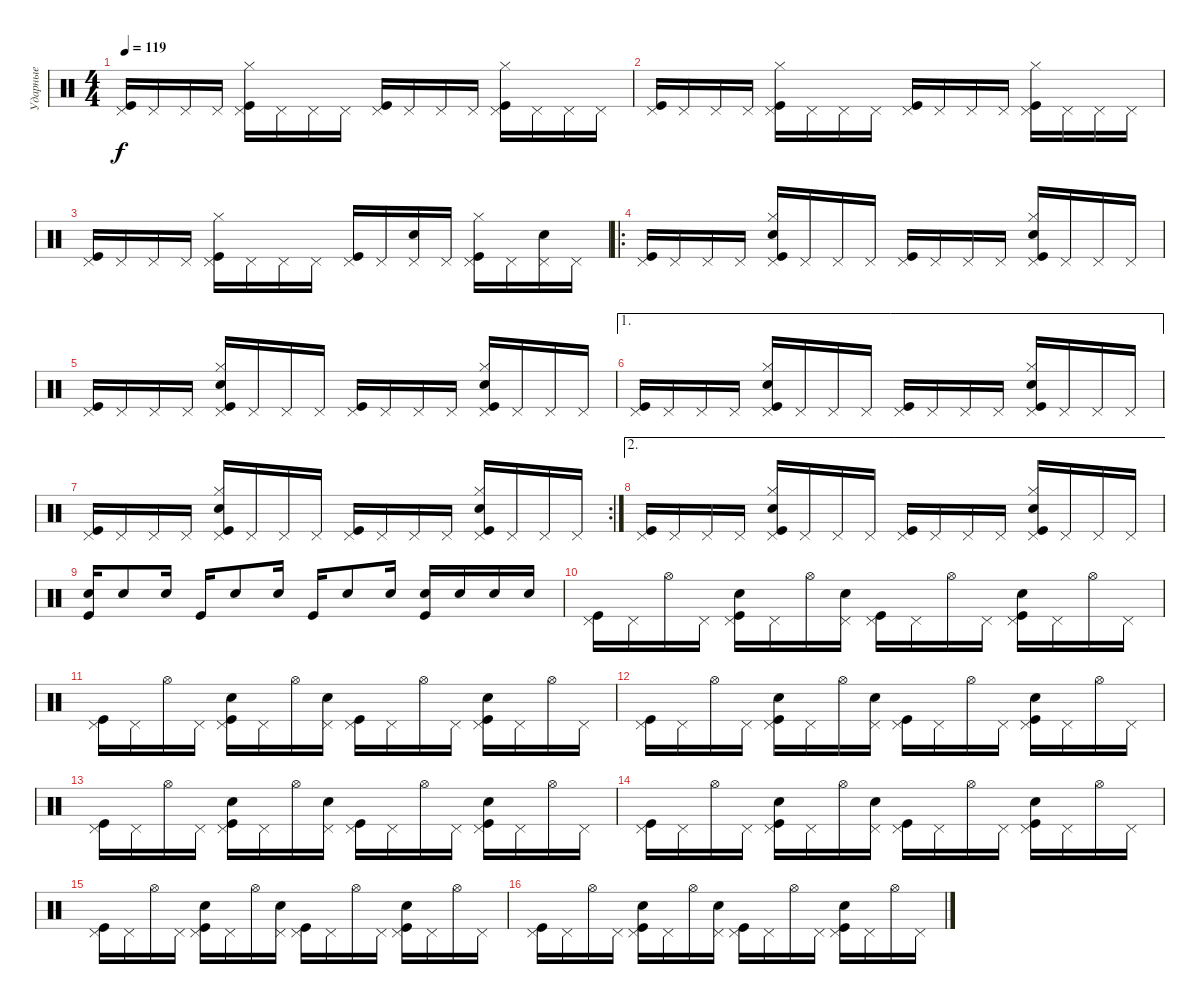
\track ("Ударные" "Ударные") {instrument percussion}
\staff {score}
\articulation defaults
\ts (4 4)
\tempo 119
\clef neutral
\ks c
("Kick (hit)" "Pedal Hi-Hat (hit)").16{dy f} "Pedal Hi-Hat (hit)".16 "Pedal Hi-Hat (hit)".16 "Pedal Hi-Hat (hit)".16 ("Kick (hit)" "Pedal Hi-Hat (hit)" "Hi-Hat (closed)").16 "Pedal Hi-Hat (hit)".16 "Pedal Hi-Hat (hit)".16 "Pedal Hi-Hat (hit)".16 ("Kick (hit)" "Pedal Hi-Hat (hit)").16 "Pedal Hi-Hat (hit)".16 "Pedal Hi-Hat (hit)".16 "Pedal Hi-Hat (hit)".16 ("Kick (hit)" "Pedal Hi-Hat (hit)" "Hi-Hat (closed)").16 "Pedal Hi-Hat (hit)".16 "Pedal Hi-Hat (hit)".16 "Pedal Hi-Hat (hit)".16 |
("Kick (hit)" "Pedal Hi-Hat (hit)").16 "Pedal Hi-Hat (hit)".16 "Pedal Hi-Hat (hit)".16 "Pedal Hi-Hat (hit)".16 ("Kick (hit)" "Pedal Hi-Hat (hit)" "Hi-Hat (closed)").16 "Pedal Hi-Hat (hit)".16 "Pedal Hi-Hat (hit)".16 "Pedal Hi-Hat (hit)".16 ("Kick (hit)" "Pedal Hi-Hat (hit)").16 "Pedal Hi-Hat (hit)".16 "Pedal Hi-Hat (hit)".16 "Pedal Hi-Hat (hit)".16 ("Kick (hit)" "Pedal Hi-Hat (hit)" "Hi-Hat (closed)").16 "Pedal Hi-Hat (hit)".16 "Pedal Hi-Hat (hit)".16 "Pedal Hi-Hat (hit)".16 |
("Kick (hit)" "Pedal Hi-Hat (hit)").16 "Pedal Hi-Hat (hit)".16 "Pedal Hi-Hat (hit)".16 "Pedal Hi-Hat (hit)".16 ("Kick (hit)" "Pedal Hi-Hat (hit)" "Hi-Hat (closed)").16 "Pedal Hi-Hat (hit)".16 "Pedal Hi-Hat (hit)".16 "Pedal Hi-Hat (hit)".16 ("Kick (hit)" "Pedal Hi-Hat (hit)").16 "Pedal Hi-Hat (hit)".16 ("Pedal Hi-Hat (hit)" "Electric Snare (hit)").16 "Pedal Hi-Hat (hit)".16 ("Kick (hit)" "Pedal Hi-Hat (hit)" "Hi-Hat (closed)").16 "Pedal Hi-Hat (hit)".16 ("Pedal Hi-Hat (hit)" "Electric Snare (hit)").16 "Pedal Hi-Hat (hit)".16 |
\ro
("Kick (hit)" "Pedal Hi-Hat (hit)").16 "Pedal Hi-Hat (hit)".16 "Pedal Hi-Hat (hit)".16 "Pedal Hi-Hat (hit)".16 ("Kick (hit)" "Pedal Hi-Hat (hit)" "Electric Snare (hit)" "Hi-Hat (closed)").16 "Pedal Hi-Hat (hit)".16 "Pedal Hi-Hat (hit)".16 "Pedal Hi-Hat (hit)".16 ("Kick (hit)" "Pedal Hi-Hat (hit)").16 "Pedal Hi-Hat (hit)".16 "Pedal Hi-Hat (hit)".16 "Pedal Hi-Hat (hit)".16 ("Kick (hit)" "Pedal Hi-Hat (hit)" "Electric Snare (hit)" "Hi-Hat (closed)").16 "Pedal Hi-Hat (hit)".16 "Pedal Hi-Hat (hit)".16 "Pedal Hi-Hat (hit)".16 |
("Kick (hit)" "Pedal Hi-Hat (hit)").16 "Pedal Hi-Hat (hit)".16 "Pedal Hi-Hat (hit)".16 "Pedal Hi-Hat (hit)".16 ("Kick (hit)" "Pedal Hi-Hat (hit)" "Electric Snare (hit)" "Hi-Hat (closed)").16 "Pedal Hi-Hat (hit)".16 "Pedal Hi-Hat (hit)".16 "Pedal Hi-Hat (hit)".16 ("Kick (hit)" "Pedal Hi-Hat (hit)").16 "Pedal Hi-Hat (hit)".16 "Pedal Hi-Hat (hit)".16 "Pedal Hi-Hat (hit)".16 ("Kick (hit)" "Pedal Hi-Hat (hit)" "Electric Snare (hit)" "Hi-Hat (closed)").16 "Pedal Hi-Hat (hit)".16 "Pedal Hi-Hat (hit)".16 "Pedal Hi-Hat (hit)".16 |
\ae 1
("Kick (hit)" "Pedal Hi-Hat (hit)").16 "Pedal Hi-Hat (hit)".16 "Pedal Hi-Hat (hit)".16 "Pedal Hi-Hat (hit)".16 ("Kick (hit)" "Pedal Hi-Hat (hit)" "Electric Snare (hit)" "Hi-Hat (closed)").16 "Pedal Hi-Hat (hit)".16 "Pedal Hi-Hat (hit)".16 "Pedal Hi-Hat (hit)".16 ("Kick (hit)" "Pedal Hi-Hat (hit)").16 "Pedal Hi-Hat (hit)".16 "Pedal Hi-Hat (hit)".16 "Pedal Hi-Hat (hit)".16 ("Kick (hit)" "Pedal Hi-Hat (hit)" "Electric Snare (hit)" "Hi-Hat (closed)").16 "Pedal Hi-Hat (hit)".16 "Pedal Hi-Hat (hit)".16 "Pedal Hi-Hat (hit)".16 |
\rc 2
("Kick (hit)" "Pedal Hi-Hat (hit)").16 "Pedal Hi-Hat (hit)".16 "Pedal Hi-Hat (hit)".16 "Pedal Hi-Hat (hit)".16 ("Kick (hit)" "Pedal Hi-Hat (hit)" "Electric Snare (hit)" "Hi-Hat (closed)").16 "Pedal Hi-Hat (hit)".16 "Pedal Hi-Hat (hit)".16 "Pedal Hi-Hat (hit)".16 ("Kick (hit)" "Pedal Hi-Hat (hit)").16 "Pedal Hi-Hat (hit)".16 "Pedal Hi-Hat (hit)".16 "Pedal Hi-Hat (hit)".16 ("Kick (hit)" "Pedal Hi-Hat (hit)" "Electric Snare (hit)" "Hi-Hat (closed)").16 "Pedal Hi-Hat (hit)".16 "Pedal Hi-Hat (hit)".16 "Pedal Hi-Hat (hit)".16 |
\ae 2
("Kick (hit)" "Pedal Hi-Hat (hit)").16 "Pedal Hi-Hat (hit)".16 "Pedal Hi-Hat (hit)".16 "Pedal Hi-Hat (hit)".16 ("Kick (hit)" "Pedal Hi-Hat (hit)" "Electric Snare (hit)" "Hi-Hat (closed)").16 "Pedal Hi-Hat (hit)".16 "Pedal Hi-Hat (hit)".16 "Pedal Hi-Hat (hit)".16 ("Kick (hit)" "Pedal Hi-Hat (hit)").16 "Pedal Hi-Hat (hit)".16 "Pedal Hi-Hat (hit)".16 "Pedal Hi-Hat (hit)".16 ("Kick (hit)" "Pedal Hi-Hat (hit)" "Electric Snare (hit)" "Hi-Hat (closed)").16 "Pedal Hi-Hat (hit)".16 "Pedal Hi-Hat (hit)".16 "Pedal Hi-Hat (hit)".16 |
("Kick (hit)" "Electric Snare (hit)").16 "Electric Snare (hit)".8 "Electric Snare (hit)".16 "Kick (hit)".16 "Electric Snare (hit)".8 "Electric Snare (hit)".16 "Kick (hit)".16 "Electric Snare (hit)".8 "Electric Snare (hit)".16 ("Kick (hit)" "Electric Snare (hit)").16 "Electric Snare (hit)".16 "Electric Snare (hit)".16 "Electric Snare (hit)".16 |
("Kick (hit)" "Pedal Hi-Hat (hit)").16 "Pedal Hi-Hat (hit)".16 "Hi-Hat (open)".16 "Pedal Hi-Hat (hit)".16 ("Kick (hit)" "Electric Snare (hit)" "Pedal Hi-Hat (hit)").16 "Pedal Hi-Hat (hit)".16 "Hi-Hat (open)".16 ("Electric Snare (hit)" "Pedal Hi-Hat (hit)").16 ("Kick (hit)" "Pedal Hi-Hat (hit)").16 "Pedal Hi-Hat (hit)".16 "Hi-Hat (open)".16 "Pedal Hi-Hat (hit)".16 ("Kick (hit)" "Electric Snare (hit)" "Pedal Hi-Hat (hit)").16 "Pedal Hi-Hat (hit)".16 "Hi-Hat (open)".16 "Pedal Hi-Hat (hit)".16 |
("Kick (hit)" "Pedal Hi-Hat (hit)").16 "Pedal Hi-Hat (hit)".16 "Hi-Hat (open)".16 "Pedal Hi-Hat (hit)".16 ("Kick (hit)" "Electric Snare (hit)" "Pedal Hi-Hat (hit)").16 "Pedal Hi-Hat (hit)".16 "Hi-Hat (open)".16 ("Electric Snare (hit)" "Pedal Hi-Hat (hit)").16 ("Kick (hit)" "Pedal Hi-Hat (hit)").16 "Pedal Hi-Hat (hit)".16 "Hi-Hat (open)".16 "Pedal Hi-Hat (hit)".16 ("Kick (hit)" "Electric Snare (hit)" "Pedal Hi-Hat (hit)").16 "Pedal Hi-Hat (hit)".16 "Hi-Hat (open)".16 "Pedal Hi-Hat (hit)".16 |
("Kick (hit)" "Pedal Hi-Hat (hit)").16 "Pedal Hi-Hat (hit)".16 "Hi-Hat (open)".16 "Pedal Hi-Hat (hit)".16 ("Kick (hit)" "Electric Snare (hit)" "Pedal Hi-Hat (hit)").16 "Pedal Hi-Hat (hit)".16 "Hi-Hat (open)".16 ("Electric Snare (hit)" "Pedal Hi-Hat (hit)").16 ("Kick (hit)" "Pedal Hi-Hat (hit)").16 "Pedal Hi-Hat (hit)".16 "Hi-Hat (open)".16 "Pedal Hi-Hat (hit)".16 ("Kick (hit)" "Electric Snare (hit)" "Pedal Hi-Hat (hit)").16 "Pedal Hi-Hat (hit)".16 "Hi-Hat (open)".16 "Pedal Hi-Hat (hit)".16 |
("Kick (hit)" "Pedal Hi-Hat (hit)").16 "Pedal Hi-Hat (hit)".16 "Hi-Hat (open)".16 "Pedal Hi-Hat (hit)".16 ("Kick (hit)" "Electric Snare (hit)" "Pedal Hi-Hat (hit)").16 "Pedal Hi-Hat (hit)".16 "Hi-Hat (open)".16 ("Electric Snare (hit)" "Pedal Hi-Hat (hit)").16 ("Kick (hit)" "Pedal Hi-Hat (hit)").16 "Pedal Hi-Hat (hit)".16 "Hi-Hat (open)".16 "Pedal Hi-Hat (hit)".16 ("Kick (hit)" "Electric Snare (hit)" "Pedal Hi-Hat (hit)").16 "Pedal Hi-Hat (hit)".16 "Hi-Hat (open)".16 "Pedal Hi-Hat (hit)".16 |
("Kick (hit)" "Pedal Hi-Hat (hit)").16 "Pedal Hi-Hat (hit)".16 "Hi-Hat (open)".16 "Pedal Hi-Hat (hit)".16 ("Kick (hit)" "Electric Snare (hit)" "Pedal Hi-Hat (hit)").16 "Pedal Hi-Hat (hit)".16 "Hi-Hat (open)".16 ("Electric Snare (hit)" "Pedal Hi-Hat (hit)").16 ("Kick (hit)" "Pedal Hi-Hat (hit)").16 "Pedal Hi-Hat (hit)".16 "Hi-Hat (open)".16 "Pedal Hi-Hat (hit)".16 ("Kick (hit)" "Electric Snare (hit)" "Pedal Hi-Hat (hit)").16 "Pedal Hi-Hat (hit)".16 "Hi-Hat (open)".16 "Pedal Hi-Hat (hit)".16 |
("Kick (hit)" "Pedal Hi-Hat (hit)").16 "Pedal Hi-Hat (hit)".16 "Hi-Hat (open)".16 "Pedal Hi-Hat (hit)".16 ("Kick (hit)" "Electric Snare (hit)" "Pedal Hi-Hat (hit)").16 "Pedal Hi-Hat (hit)".16 "Hi-Hat (open)".16 ("Electric Snare (hit)" "Pedal Hi-Hat (hit)").16 ("Kick (hit)" "Pedal Hi-Hat (hit)").16 "Pedal Hi-Hat (hit)".16 "Hi-Hat (open)".16 "Pedal Hi-Hat (hit)".16 ("Kick (hit)" "Electric Snare (hit)" "Pedal Hi-Hat (hit)").16 "Pedal Hi-Hat (hit)".16 "Hi-Hat (open)".16 "Pedal Hi-Hat (hit)".16 |
("Kick (hit)" "Pedal Hi-Hat (hit)").16 "Pedal Hi-Hat (hit)".16 "Hi-Hat (open)".16 "Pedal Hi-Hat (hit)".16 ("Kick (hit)" "Electric Snare (hit)" "Pedal Hi-Hat (hit)").16 "Pedal Hi-Hat (hit)".16 "Hi-Hat (open)".16 ("Electric Snare (hit)" "Pedal Hi-Hat (hit)").16 ("Kick (hit)" "Pedal Hi-Hat (hit)").16 "Pedal Hi-Hat (hit)".16 "Hi-Hat (open)".16 "Pedal Hi-Hat (hit)".16 ("Kick (hit)" "Electric Snare (hit)" "Pedal Hi-Hat (hit)").16 "Pedal Hi-Hat (hit)".16 "Hi-Hat (open)".16 "Pedal Hi-Hat (hit)".16
